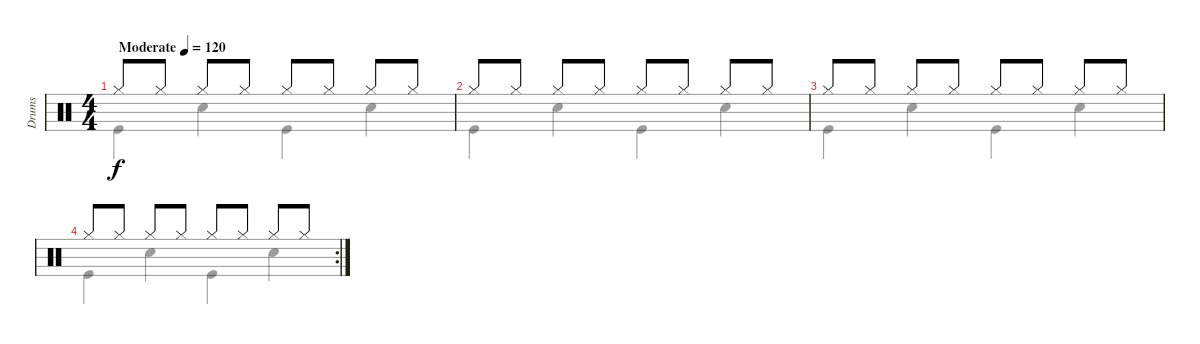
\track ("Drums" "Drums") {instrument percussion}
\staff {score}
\articulation defaults
\voice
\ts (4 4)
\tempo (120 "Moderate")
\clef neutral
\ks c "Hi-Hat (closed)".8{dy f beam Up} "Hi-Hat (closed)".8{beam Up} "Hi-Hat (closed)".8{beam Up} "Hi-Hat (closed)".8{beam Up} "Hi-Hat (closed)".8{beam Up} "Hi-Hat (closed)".8{beam Up} "Hi-Hat (closed)".8{beam Up} "Hi-Hat (closed)".8{beam Up}
|
"Hi-Hat (closed)".8{beam Up} "Hi-Hat (closed)".8{beam Up} "Hi-Hat (closed)".8{beam Up} "Hi-Hat (closed)".8{beam Up} "Hi-Hat (closed)".8{beam Up} "Hi-Hat (closed)".8{beam Up} "Hi-Hat (closed)".8{beam Up} "Hi-Hat (closed)".8{beam Up} |
"Hi-Hat (closed)".8{beam Up} "Hi-Hat (closed)".8{beam Up} "Hi-Hat (closed)".8{beam Up} "Hi-Hat (closed)".8{beam Up} "Hi-Hat (closed)".8{beam Up} "Hi-Hat (closed)".8{beam Up} "Hi-Hat (closed)".8{beam Up} "Hi-Hat (closed)".8{beam Up} |
\rc 2 "Hi-Hat (closed)".8{beam Up} "Hi-Hat (closed)".8{beam Up} "Hi-Hat (closed)".8{beam Up} "Hi-Hat (closed)".8{beam Up} "Hi-Hat (closed)".8{beam Up} "Hi-Hat (closed)".8{beam Up} "Hi-Hat (closed)".8{beam Up} "Hi-Hat (closed)".8{beam Up}
\voice
\clef neutral
\ottava regular
\simile none
\ks c "Kick (hit)".4{dy f} "Snare (hit) 2".4 "Kick (hit)".4 "Snare (hit) 2".4
|
"Kick (hit)".4 "Snare (hit) 2".4 "Kick (hit)".4 "Snare (hit) 2".4 |
"Kick (hit)".4 "Snare (hit) 2".4 "Kick (hit)".4 "Snare (hit) 2".4 |
"Kick (hit)".4 "Snare (hit) 2".4 "Kick (hit)".4 "Snare (hit) 2".4
